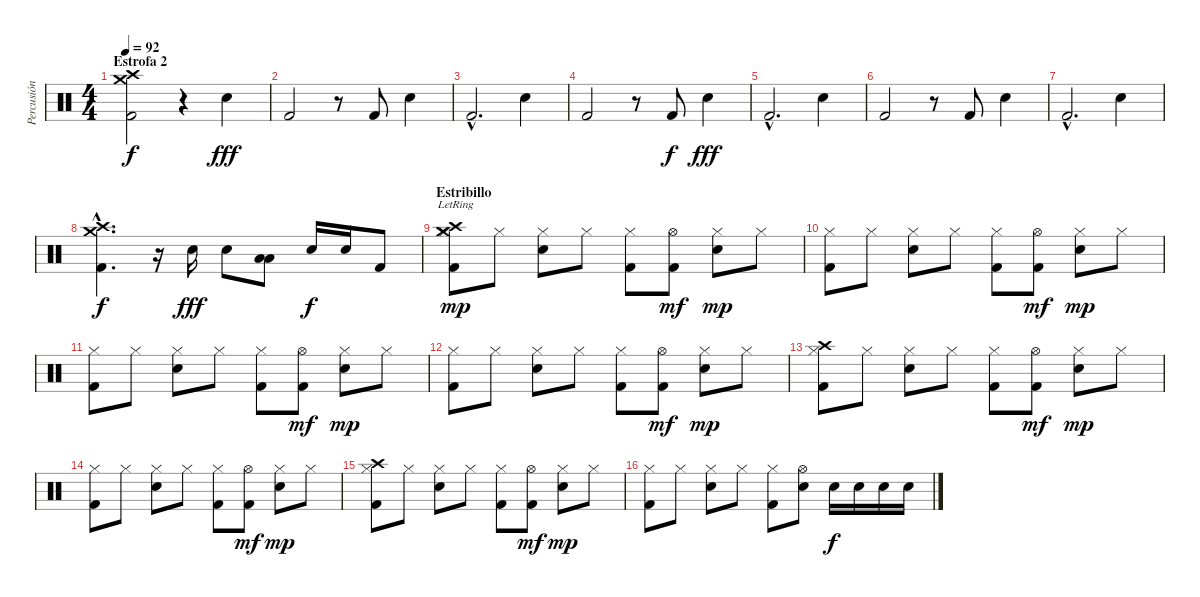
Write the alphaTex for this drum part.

\track ("Percusión" "Percusión") {instrument percussion}
\staff {score}
\articulation defaults
\ts (4 4)
\section ("" "Estrofa 2")
\tempo 92
\clef neutral
\ks c
("Crash high (hit)" "Crash medium (hit)" "Kick (hit) 2").2{dy f} r.4 "Snare (hit) 2".4{dy fff} |
"Kick (hit) 2".2 r.8 "Kick (hit) 2".8 "Snare (hit) 2".4 |
"Kick (hit) 2"{hac}.2{d} "Snare (hit) 2".4 |
"Kick (hit) 2".2 r.8 "Kick (hit) 2".8{dy f} "Snare (hit) 2".4{dy fff} |
"Kick (hit) 2"{hac}.2{d} "Snare (hit) 2".4 |
"Kick (hit) 2".2 r.8 "Kick (hit) 2".8 "Snare (hit) 2".4 |
"Kick (hit) 2"{hac}.2{d} "Snare (hit) 2".4 |
("Crash high (hit)"{hac} "Crash medium (hit)"{hac} "Kick (hit) 2"{hac}).4{d dy f} r.16 "Snare (hit) 2".16{dy fff} "Snare (hit) 2".8 ("Low Tom (hit)" "Low Tom (hit)").8 "Snare (hit) 2".16{dy f} "Snare (hit) 2".16 "Kick (hit) 2".8 |
\section ("" "Estribillo")
("Crash high (hit)"{lr} "Crash medium (hit)" "Kick (hit) 2" "Hi-Hat (closed)").8{dy mp} "Hi-Hat (closed)".8 ("Snare (hit) 2" "Hi-Hat (closed)").8 "Hi-Hat (closed)".8 ("Kick (hit) 2" "Hi-Hat (closed)").8 ("Kick (hit) 2" "Hi-Hat (open)").8{dy mf} ("Snare (hit) 2" "Hi-Hat (closed)").8{dy mp} "Hi-Hat (closed)".8 |
("Kick (hit) 2" "Hi-Hat (closed)").8 "Hi-Hat (closed)".8 ("Snare (hit) 2" "Hi-Hat (closed)").8 "Hi-Hat (closed)".8 ("Kick (hit) 2" "Hi-Hat (closed)").8 ("Kick (hit) 2" "Hi-Hat (open)").8{dy mf} ("Snare (hit) 2" "Hi-Hat (closed)").8{dy mp} "Hi-Hat (closed)".8 |
("Kick (hit) 2" "Hi-Hat (closed)").8 "Hi-Hat (closed)".8 ("Snare (hit) 2" "Hi-Hat (closed)").8 "Hi-Hat (closed)".8 ("Kick (hit) 2" "Hi-Hat (closed)").8 ("Kick (hit) 2" "Hi-Hat (open)").8{dy mf} ("Snare (hit) 2" "Hi-Hat (closed)").8{dy mp} "Hi-Hat (closed)".8 |
("Kick (hit) 2" "Hi-Hat (closed)").8 "Hi-Hat (closed)".8 ("Snare (hit) 2" "Hi-Hat (closed)").8 "Hi-Hat (closed)".8 ("Kick (hit) 2" "Hi-Hat (closed)").8 ("Kick (hit) 2" "Hi-Hat (open)").8{dy mf} ("Snare (hit) 2" "Hi-Hat (closed)").8{dy mp} "Hi-Hat (closed)".8 |
("Crash high (hit)" "Kick (hit) 2" "Hi-Hat (closed)").8 "Hi-Hat (closed)".8 ("Snare (hit) 2" "Hi-Hat (closed)").8 "Hi-Hat (closed)".8 ("Kick (hit) 2" "Hi-Hat (closed)").8 ("Kick (hit) 2" "Hi-Hat (open)").8{dy mf} ("Snare (hit) 2" "Hi-Hat (closed)").8{dy mp} "Hi-Hat (closed)".8 |
("Kick (hit) 2" "Hi-Hat (closed)").8 "Hi-Hat (closed)".8 ("Snare (hit) 2" "Hi-Hat (closed)").8 "Hi-Hat (closed)".8 ("Kick (hit) 2" "Hi-Hat (closed)").8 ("Kick (hit) 2" "Hi-Hat (open)").8{dy mf} ("Snare (hit) 2" "Hi-Hat (closed)").8{dy mp} "Hi-Hat (closed)".8 |
("Crash high (hit)" "Kick (hit) 2" "Hi-Hat (closed)").8 "Hi-Hat (closed)".8 ("Snare (hit) 2" "Hi-Hat (closed)").8 "Hi-Hat (closed)".8 ("Kick (hit) 2" "Hi-Hat (closed)").8 ("Kick (hit) 2" "Hi-Hat (open)").8{dy mf} ("Snare (hit) 2" "Hi-Hat (closed)").8{dy mp} "Hi-Hat (closed)".8 |
("Kick (hit) 2" "Hi-Hat (closed)").8 "Hi-Hat (closed)".8 ("Snare (hit) 2" "Hi-Hat (closed)").8 "Hi-Hat (closed)".8 ("Kick (hit) 2" "Hi-Hat (closed)").8 ("Snare (hit) 2" "Hi-Hat (open)").8 "Snare (hit) 2".16{dy f} "Snare (hit) 2".16 "Snare (hit) 2".16 "Snare (hit) 2".16
